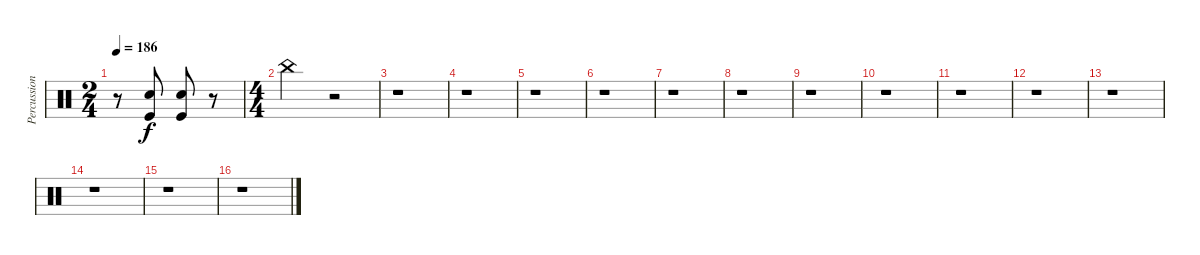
\track ("Percussions" "Percussion") {instrument percussion}
\staff {score}
\articulation defaults
\ts (2 4)
\tempo 186
\clef neutral
\ks c
r.8{dy f} ("Snare (hit) 2" "Kick (hit)").8 ("Snare (hit) 2" "Kick (hit)").8 r.8 |
\ts (4 4)
"China (hit)".2 r.2 |
r.1 |
r.1 |
r.1 |
r.1 |
r.1 |
r.1 |
r.1 |
r.1 |
r.1 |
r.1 |
r.1 |
r.1 |
r.1 |
r.1
